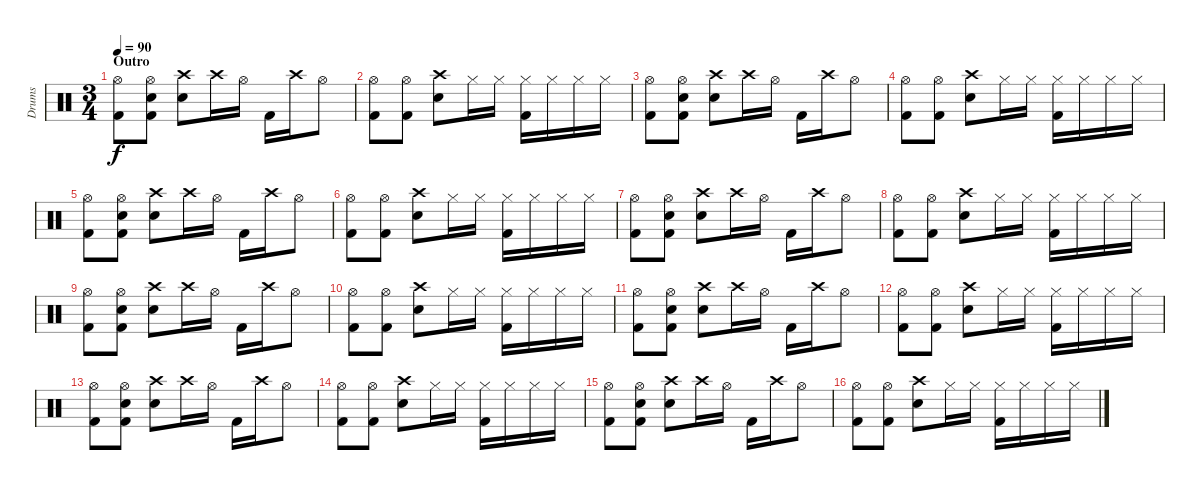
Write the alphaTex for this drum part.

\track ("Drums" "Drums") {instrument percussion}
\staff {score}
\articulation defaults
\ts (3 4)
\section ("" "Outro")
\tempo 90
\clef neutral
\ks c
("Hi-Hat (open)" "Kick (hit) 2").8{dy f} ("Hi-Hat (open)" "Snare (hit) 2" "Kick (hit) 2").8 ("Crash high (hit)" "Snare (hit) 2").8 "Crash high (hit)".16 "Hi-Hat (open)".16 "Kick (hit) 2".16 "Crash high (hit)".16 "Hi-Hat (open)".8 |
("Hi-Hat (open)" "Kick (hit) 2").8 ("Hi-Hat (open)" "Kick (hit) 2").8 ("Crash high (hit)" "Snare (hit) 2").8 "Hi-Hat (closed)".16 "Hi-Hat (closed)".16 ("Hi-Hat (closed)" "Kick (hit) 2").16 "Hi-Hat (closed)".16 "Hi-Hat (closed)".16 "Hi-Hat (closed)".16 |
("Hi-Hat (open)" "Kick (hit) 2").8 ("Hi-Hat (open)" "Snare (hit) 2" "Kick (hit) 2").8 ("Crash high (hit)" "Snare (hit) 2").8 "Crash high (hit)".16 "Hi-Hat (open)".16 "Kick (hit) 2".16 "Crash high (hit)".16 "Hi-Hat (open)".8 |
("Hi-Hat (open)" "Kick (hit) 2").8 ("Hi-Hat (open)" "Kick (hit) 2").8 ("Crash high (hit)" "Snare (hit) 2").8 "Hi-Hat (closed)".16 "Hi-Hat (closed)".16 ("Hi-Hat (closed)" "Kick (hit) 2").16 "Hi-Hat (closed)".16 "Hi-Hat (closed)".16 "Hi-Hat (closed)".16 |
("Hi-Hat (open)" "Kick (hit) 2").8 ("Hi-Hat (open)" "Snare (hit) 2" "Kick (hit) 2").8 ("Crash high (hit)" "Snare (hit) 2").8 "Crash high (hit)".16 "Hi-Hat (open)".16 "Kick (hit) 2".16 "Crash high (hit)".16 "Hi-Hat (open)".8 |
("Hi-Hat (open)" "Kick (hit) 2").8 ("Hi-Hat (open)" "Kick (hit) 2").8 ("Crash high (hit)" "Snare (hit) 2").8 "Hi-Hat (closed)".16 "Hi-Hat (closed)".16 ("Hi-Hat (closed)" "Kick (hit) 2").16 "Hi-Hat (closed)".16 "Hi-Hat (closed)".16 "Hi-Hat (closed)".16 |
("Hi-Hat (open)" "Kick (hit) 2").8 ("Hi-Hat (open)" "Snare (hit) 2" "Kick (hit) 2").8 ("Crash high (hit)" "Snare (hit) 2").8 "Crash high (hit)".16 "Hi-Hat (open)".16 "Kick (hit) 2".16 "Crash high (hit)".16 "Hi-Hat (open)".8 |
("Hi-Hat (open)" "Kick (hit) 2").8 ("Hi-Hat (open)" "Kick (hit) 2").8 ("Crash high (hit)" "Snare (hit) 2").8 "Hi-Hat (closed)".16 "Hi-Hat (closed)".16 ("Hi-Hat (closed)" "Kick (hit) 2").16 "Hi-Hat (closed)".16 "Hi-Hat (closed)".16 "Hi-Hat (closed)".16 |
("Hi-Hat (open)" "Kick (hit) 2").8 ("Hi-Hat (open)" "Snare (hit) 2" "Kick (hit) 2").8 ("Crash high (hit)" "Snare (hit) 2").8 "Crash high (hit)".16 "Hi-Hat (open)".16 "Kick (hit) 2".16 "Crash high (hit)".16 "Hi-Hat (open)".8 |
("Hi-Hat (open)" "Kick (hit) 2").8 ("Hi-Hat (open)" "Kick (hit) 2").8 ("Crash high (hit)" "Snare (hit) 2").8 "Hi-Hat (closed)".16 "Hi-Hat (closed)".16 ("Hi-Hat (closed)" "Kick (hit) 2").16 "Hi-Hat (closed)".16 "Hi-Hat (closed)".16 "Hi-Hat (closed)".16 |
("Hi-Hat (open)" "Kick (hit) 2").8 ("Hi-Hat (open)" "Snare (hit) 2" "Kick (hit) 2").8 ("Crash high (hit)" "Snare (hit) 2").8 "Crash high (hit)".16 "Hi-Hat (open)".16 "Kick (hit) 2".16 "Crash high (hit)".16 "Hi-Hat (open)".8 |
("Hi-Hat (open)" "Kick (hit) 2").8 ("Hi-Hat (open)" "Kick (hit) 2").8 ("Crash high (hit)" "Snare (hit) 2").8 "Hi-Hat (closed)".16 "Hi-Hat (closed)".16 ("Hi-Hat (closed)" "Kick (hit) 2").16 "Hi-Hat (closed)".16 "Hi-Hat (closed)".16 "Hi-Hat (closed)".16 |
("Hi-Hat (open)" "Kick (hit) 2").8 ("Hi-Hat (open)" "Snare (hit) 2" "Kick (hit) 2").8 ("Crash high (hit)" "Snare (hit) 2").8 "Crash high (hit)".16 "Hi-Hat (open)".16 "Kick (hit) 2".16 "Crash high (hit)".16 "Hi-Hat (open)".8 |
("Hi-Hat (open)" "Kick (hit) 2").8 ("Hi-Hat (open)" "Kick (hit) 2").8 ("Crash high (hit)" "Snare (hit) 2").8 "Hi-Hat (closed)".16 "Hi-Hat (closed)".16 ("Hi-Hat (closed)" "Kick (hit) 2").16 "Hi-Hat (closed)".16 "Hi-Hat (closed)".16 "Hi-Hat (closed)".16 |
("Hi-Hat (open)" "Kick (hit) 2").8 ("Hi-Hat (open)" "Snare (hit) 2" "Kick (hit) 2").8 ("Crash high (hit)" "Snare (hit) 2").8 "Crash high (hit)".16 "Hi-Hat (open)".16 "Kick (hit) 2".16 "Crash high (hit)".16 "Hi-Hat (open)".8 |
("Hi-Hat (open)" "Kick (hit) 2").8 ("Hi-Hat (open)" "Kick (hit) 2").8 ("Crash high (hit)" "Snare (hit) 2").8 "Hi-Hat (closed)".16 "Hi-Hat (closed)".16 ("Hi-Hat (closed)" "Kick (hit) 2").16 "Hi-Hat (closed)".16 "Hi-Hat (closed)".16 "Hi-Hat (closed)".16
